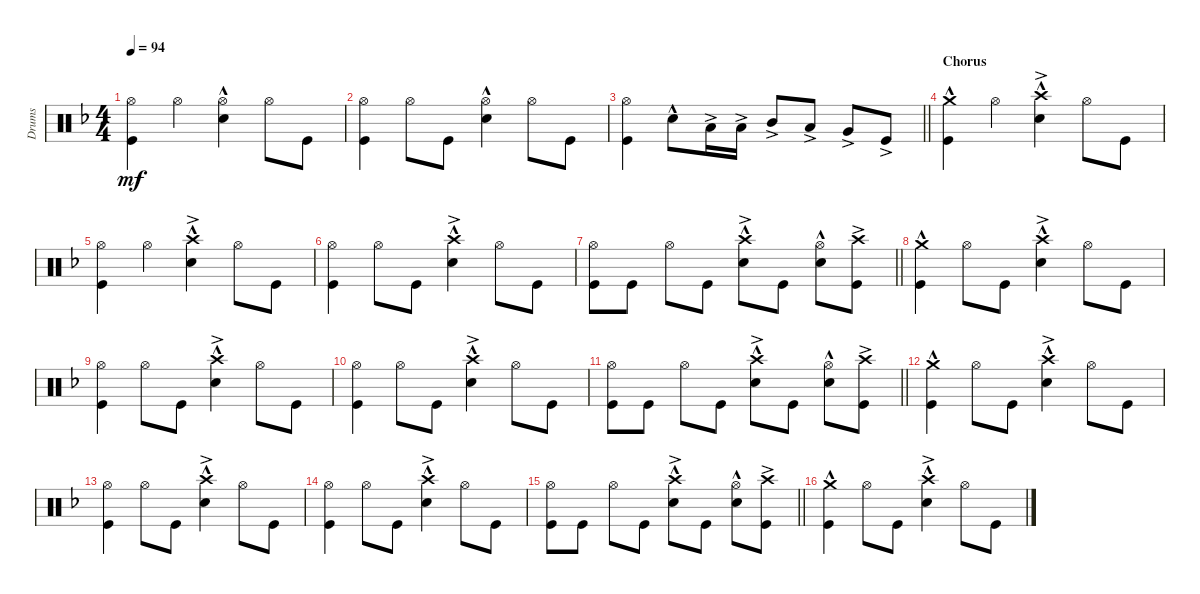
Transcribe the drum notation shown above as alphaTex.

\track ("Drums" "Drums") {instrument percussion}
\staff {score}
\articulation defaults
\ts (4 4)
\tempo 94
\clef neutral
\ks dminor
("Kick (hit)" "Hi-Hat (open)").4{dy mf} "Hi-Hat (open)".4 ("Hi-Hat (open)"{hac} "Snare (hit) 2"{hac}).4 "Hi-Hat (open)".8 "Kick (hit)".8 |
("Kick (hit)" "Hi-Hat (open)").4 "Hi-Hat (open)".8 "Kick (hit)".8 ("Hi-Hat (open)"{hac} "Snare (hit) 2"{hac}).4 "Hi-Hat (open)".8 "Kick (hit)".8 |
\barLineRight lightlight
("Kick (hit)" "Hi-Hat (open)").4 "Snare (hit) 2"{hac}.8 "Low Floor Tom (hit)"{ac}.16 "Low Floor Tom (hit)"{ac}.16 "Mid Tom (hit)"{ac}.8 "Low Tom (hit)"{ac}.8 "Very Low Tom (hit)"{ac}.8 "Kick (hit)"{ac}.8 |
\section ("" "Chorus")
("Crash medium (hit)"{hac} "Kick (hit)").4 "Hi-Hat (open)".4 ("Snare (hit) 2"{hac} "Crash high (hit)"{ac}).4 "Hi-Hat (open)".8 "Kick (hit)".8 |
("Kick (hit)" "Hi-Hat (open)").4 "Hi-Hat (open)".4 ("Snare (hit) 2"{hac} "Crash high (hit)"{ac}).4 "Hi-Hat (open)".8 "Kick (hit)".8 |
("Kick (hit)" "Hi-Hat (open)").4 "Hi-Hat (open)".8 "Kick (hit)".8 ("Snare (hit) 2"{hac} "Crash high (hit)"{ac}).4 "Hi-Hat (open)".8 "Kick (hit)".8 |
\barLineRight lightlight
("Kick (hit)" "Hi-Hat (open)").8 "Kick (hit)".8 "Hi-Hat (open)".8 "Kick (hit)".8 ("Snare (hit) 2"{hac} "Crash high (hit)"{ac}).8 "Kick (hit)".8 ("Hi-Hat (open)" "Snare (hit) 2"{hac}).8 ("Kick (hit)" "Crash high (hit)"{ac}).8 |
("Crash medium (hit)"{hac} "Kick (hit)").4 "Hi-Hat (open)".8 "Kick (hit)".8 ("Snare (hit) 2"{hac} "Crash high (hit)"{ac}).4 "Hi-Hat (open)".8 "Kick (hit)".8 |
("Kick (hit)" "Hi-Hat (open)").4 "Hi-Hat (open)".8 "Kick (hit)".8 ("Snare (hit) 2"{hac} "Crash high (hit)"{ac}).4 "Hi-Hat (open)".8 "Kick (hit)".8 |
("Kick (hit)" "Hi-Hat (open)").4 "Hi-Hat (open)".8 "Kick (hit)".8 ("Snare (hit) 2"{hac} "Crash high (hit)"{ac}).4 "Hi-Hat (open)".8 "Kick (hit)".8 |
\barLineRight lightlight
("Kick (hit)" "Hi-Hat (open)").8 "Kick (hit)".8 "Hi-Hat (open)".8 "Kick (hit)".8 ("Snare (hit) 2"{hac} "Crash high (hit)"{ac}).8 "Kick (hit)".8 ("Hi-Hat (open)" "Snare (hit) 2"{hac}).8 ("Kick (hit)" "Crash high (hit)"{ac}).8 |
("Crash medium (hit)"{hac} "Kick (hit)").4 "Hi-Hat (open)".8 "Kick (hit)".8 ("Snare (hit) 2"{hac} "Crash high (hit)"{ac}).4 "Hi-Hat (open)".8 "Kick (hit)".8 |
("Kick (hit)" "Hi-Hat (open)").4 "Hi-Hat (open)".8 "Kick (hit)".8 ("Snare (hit) 2"{hac} "Crash high (hit)"{ac}).4 "Hi-Hat (open)".8 "Kick (hit)".8 |
("Kick (hit)" "Hi-Hat (open)").4 "Hi-Hat (open)".8 "Kick (hit)".8 ("Snare (hit) 2"{hac} "Crash high (hit)"{ac}).4 "Hi-Hat (open)".8 "Kick (hit)".8 |
\barLineRight lightlight
("Kick (hit)" "Hi-Hat (open)").8 "Kick (hit)".8 "Hi-Hat (open)".8 "Kick (hit)".8 ("Snare (hit) 2"{hac} "Crash high (hit)"{ac}).8 "Kick (hit)".8 ("Hi-Hat (open)" "Snare (hit) 2"{hac}).8 ("Kick (hit)" "Crash high (hit)"{ac}).8 |
("Crash medium (hit)"{hac} "Kick (hit)").4 "Hi-Hat (open)".8 "Kick (hit)".8 ("Snare (hit) 2"{hac} "Crash high (hit)"{ac}).4 "Hi-Hat (open)".8 "Kick (hit)".8
